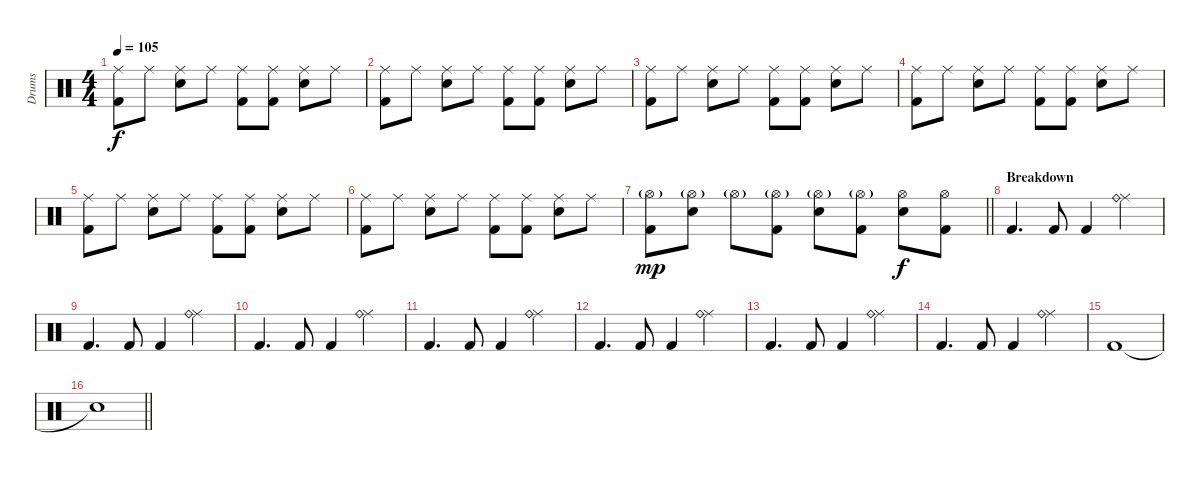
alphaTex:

\track ("Drums" "Drums") {instrument percussion}
\staff {score}
\articulation defaults
\ts (4 4)
\tempo 105
\clef neutral
\ks c
("Ride (middle)" "Kick (hit) 2").8{dy f} "Ride (middle)".8 ("Ride (middle)" "Electric Snare (hit)").8 "Ride (middle)".8 ("Ride (middle)" "Kick (hit) 2").8 ("Ride (middle)" "Kick (hit) 2").8 ("Ride (middle)" "Electric Snare (hit)").8 "Ride (middle)".8 |
("Ride (middle)" "Kick (hit) 2").8 "Ride (middle)".8 ("Ride (middle)" "Electric Snare (hit)").8 "Ride (middle)".8 ("Ride (middle)" "Kick (hit) 2").8 ("Ride (middle)" "Kick (hit) 2").8 ("Ride (middle)" "Electric Snare (hit)").8 "Ride (middle)".8 |
("Ride (middle)" "Kick (hit) 2").8 "Ride (middle)".8 ("Ride (middle)" "Electric Snare (hit)").8 "Ride (middle)".8 ("Ride (middle)" "Kick (hit) 2").8 ("Ride (middle)" "Kick (hit) 2").8 ("Ride (middle)" "Electric Snare (hit)").8 "Ride (middle)".8 |
("Ride (middle)" "Kick (hit) 2").8 "Ride (middle)".8 ("Ride (middle)" "Electric Snare (hit)").8 "Ride (middle)".8 ("Ride (middle)" "Kick (hit) 2").8 ("Ride (middle)" "Kick (hit) 2").8 ("Ride (middle)" "Electric Snare (hit)").8 "Ride (middle)".8 |
("Ride (middle)" "Kick (hit) 2").8 "Ride (middle)".8 ("Ride (middle)" "Electric Snare (hit)").8 "Ride (middle)".8 ("Ride (middle)" "Kick (hit) 2").8 ("Ride (middle)" "Kick (hit) 2").8 ("Ride (middle)" "Electric Snare (hit)").8 "Ride (middle)".8 |
("Ride (middle)" "Kick (hit) 2").8 "Ride (middle)".8 ("Ride (middle)" "Electric Snare (hit)").8 "Ride (middle)".8 ("Ride (middle)" "Kick (hit) 2").8 ("Ride (middle)" "Kick (hit) 2").8 ("Ride (middle)" "Electric Snare (hit)").8 "Ride (middle)".8 |
\barLineRight lightlight
("Hi-Hat (open)"{g} "Kick (hit) 2").8{dy mp} ("Hi-Hat (open)"{g} "Electric Snare (hit)").8 "Hi-Hat (open)"{g}.8 ("Hi-Hat (open)"{g} "Kick (hit) 2").8 ("Hi-Hat (open)"{g} "Electric Snare (hit)").8 ("Hi-Hat (open)"{g} "Kick (hit) 2").8 ("Hi-Hat (open)" "Electric Snare (hit)").8{dy f} ("Hi-Hat (open)" "Kick (hit) 2").8 |
\section ("" "Breakdown")
"Kick (hit) 2".4{d} "Kick (hit) 2".8 "Kick (hit) 2".4 ("Ride (middle)" "Ride (bell)").4 |
"Kick (hit) 2".4{d} "Kick (hit) 2".8 "Kick (hit) 2".4 ("Ride (middle)" "Ride (bell)").4 |
"Kick (hit) 2".4{d} "Kick (hit) 2".8 "Kick (hit) 2".4 ("Ride (middle)" "Ride (bell)").4 |
"Kick (hit) 2".4{d} "Kick (hit) 2".8 "Kick (hit) 2".4 ("Ride (middle)" "Ride (bell)").4 |
"Kick (hit) 2".4{d} "Kick (hit) 2".8 "Kick (hit) 2".4 ("Ride (middle)" "Ride (bell)").4 |
"Kick (hit) 2".4{d} "Kick (hit) 2".8 "Kick (hit) 2".4 ("Ride (middle)" "Ride (bell)").4 |
"Kick (hit) 2".4{d} "Kick (hit) 2".8 "Kick (hit) 2".4 ("Ride (middle)" "Ride (bell)").4 |
"Kick (hit) 2".1 |
\barLineRight lightlight "Snare (hit)"{t}.1
